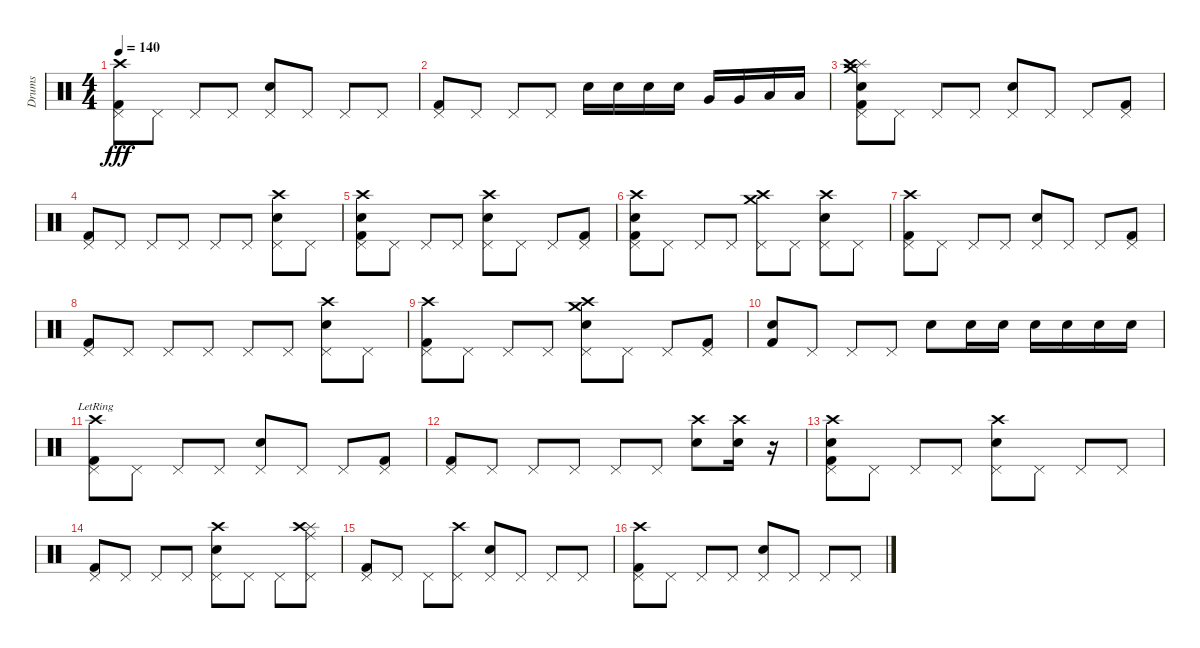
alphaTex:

\track ("Drums" "Drums") {instrument percussion}
\staff {score}
\articulation defaults
\ts (4 4)
\tempo 140
\clef neutral
\ks c
("Crash high (hit)" "Pedal Hi-Hat (hit)" "Kick (hit) 2").8{dy fff} "Pedal Hi-Hat (hit)".8 "Pedal Hi-Hat (hit)".8 "Pedal Hi-Hat (hit)".8 ("Pedal Hi-Hat (hit)" "Snare (hit) 2").8 "Pedal Hi-Hat (hit)".8 "Pedal Hi-Hat (hit)".8 "Pedal Hi-Hat (hit)".8 |
("Pedal Hi-Hat (hit)" "Kick (hit) 2").8 "Pedal Hi-Hat (hit)".8 "Pedal Hi-Hat (hit)".8 "Pedal Hi-Hat (hit)".8 "Snare (hit) 2".16 "Snare (hit) 2".16 "Snare (hit) 2".16 "Snare (hit) 2".16 "Very Low Tom (hit)".16 "Very Low Tom (hit)".16 "Low Floor Tom (hit)".16 "Low Floor Tom (hit)".16 |
("Crash medium (hit)" "Splash (hit)" "Pedal Hi-Hat (hit)" "Crash high (hit)" "Snare (hit) 2" "Kick (hit) 2").8 "Pedal Hi-Hat (hit)".8 "Pedal Hi-Hat (hit)".8 "Pedal Hi-Hat (hit)".8 ("Pedal Hi-Hat (hit)" "Snare (hit) 2").8 "Pedal Hi-Hat (hit)".8 "Pedal Hi-Hat (hit)".8 ("Pedal Hi-Hat (hit)" "Kick (hit) 2").8 |
("Pedal Hi-Hat (hit)" "Kick (hit) 2").8 "Pedal Hi-Hat (hit)".8 "Pedal Hi-Hat (hit)".8 "Pedal Hi-Hat (hit)".8 "Pedal Hi-Hat (hit)".8 "Pedal Hi-Hat (hit)".8 ("Crash high (hit)" "Pedal Hi-Hat (hit)" "Snare (hit) 2").8 "Pedal Hi-Hat (hit)".8 |
("Crash high (hit)" "Pedal Hi-Hat (hit)" "Snare (hit) 2" "Kick (hit) 2").8 "Pedal Hi-Hat (hit)".8 "Pedal Hi-Hat (hit)".8 "Pedal Hi-Hat (hit)".8 ("Crash high (hit)" "Pedal Hi-Hat (hit)" "Snare (hit) 2").8 "Pedal Hi-Hat (hit)".8 "Pedal Hi-Hat (hit)".8 ("Pedal Hi-Hat (hit)" "Kick (hit) 2").8 |
("Crash high (hit)" "Pedal Hi-Hat (hit)" "Snare (hit) 2" "Kick (hit) 2").8 "Pedal Hi-Hat (hit)".8 "Pedal Hi-Hat (hit)".8 "Pedal Hi-Hat (hit)".8 ("Crash medium (hit)" "Crash high (hit)" "Pedal Hi-Hat (hit)").8 "Pedal Hi-Hat (hit)".8 ("Crash high (hit)" "Pedal Hi-Hat (hit)" "Snare (hit) 2").8 "Pedal Hi-Hat (hit)".8 |
("Crash high (hit)" "Pedal Hi-Hat (hit)" "Kick (hit) 2").8 "Pedal Hi-Hat (hit)".8 "Pedal Hi-Hat (hit)".8 "Pedal Hi-Hat (hit)".8 ("Pedal Hi-Hat (hit)" "Snare (hit) 2").8 "Pedal Hi-Hat (hit)".8 "Pedal Hi-Hat (hit)".8 ("Pedal Hi-Hat (hit)" "Kick (hit) 2").8 |
("Pedal Hi-Hat (hit)" "Kick (hit) 2").8 "Pedal Hi-Hat (hit)".8 "Pedal Hi-Hat (hit)".8 "Pedal Hi-Hat (hit)".8 "Pedal Hi-Hat (hit)".8 "Pedal Hi-Hat (hit)".8 ("Crash high (hit)" "Pedal Hi-Hat (hit)" "Snare (hit) 2").8 "Pedal Hi-Hat (hit)".8 |
("Crash high (hit)" "Pedal Hi-Hat (hit)" "Kick (hit) 2").8 "Pedal Hi-Hat (hit)".8 "Pedal Hi-Hat (hit)".8 "Pedal Hi-Hat (hit)".8 ("Crash medium (hit)" "Crash high (hit)" "Pedal Hi-Hat (hit)" "Snare (hit) 2").8 "Pedal Hi-Hat (hit)".8 "Pedal Hi-Hat (hit)".8 ("Pedal Hi-Hat (hit)" "Kick (hit) 2").8 |
("Snare (hit) 2" "Kick (hit) 2").8 "Pedal Hi-Hat (hit)".8 "Pedal Hi-Hat (hit)".8 "Pedal Hi-Hat (hit)".8 "Snare (hit) 2".8 "Snare (hit) 2".16 "Snare (hit) 2".16 "Snare (hit) 2".16 "Snare (hit) 2".16 "Snare (hit) 2".16 "Snare (hit) 2".16 |
("Crash high (hit)"{lr} "Pedal Hi-Hat (hit)" "Kick (hit) 2").8 "Pedal Hi-Hat (hit)".8 "Pedal Hi-Hat (hit)".8 "Pedal Hi-Hat (hit)".8 ("Pedal Hi-Hat (hit)" "Snare (hit) 2").8 "Pedal Hi-Hat (hit)".8 "Pedal Hi-Hat (hit)".8 ("Pedal Hi-Hat (hit)" "Kick (hit) 2").8 |
("Pedal Hi-Hat (hit)" "Kick (hit) 2").8 "Pedal Hi-Hat (hit)".8 "Pedal Hi-Hat (hit)".8 "Pedal Hi-Hat (hit)".8 "Pedal Hi-Hat (hit)".8 "Pedal Hi-Hat (hit)".8 ("Crash high (hit)" "Snare (hit) 2").8 ("Crash high (hit)" "Snare (hit) 2").16 r.16 |
("Kick (hit) 2" "Crash high (hit)" "Pedal Hi-Hat (hit)" "Snare (hit) 2").8 "Pedal Hi-Hat (hit)".8 "Pedal Hi-Hat (hit)".8 "Pedal Hi-Hat (hit)".8 ("Crash high (hit)" "Pedal Hi-Hat (hit)" "Snare (hit) 2").8 "Pedal Hi-Hat (hit)".8 "Pedal Hi-Hat (hit)".8 "Pedal Hi-Hat (hit)".8 |
("Pedal Hi-Hat (hit)" "Kick (hit) 2").8 "Pedal Hi-Hat (hit)".8 "Pedal Hi-Hat (hit)".8 "Pedal Hi-Hat (hit)".8 ("Crash high (hit)" "Pedal Hi-Hat (hit)" "Snare (hit) 2").8 "Pedal Hi-Hat (hit)".8 "Pedal Hi-Hat (hit)".8 ("Splash (hit)" "Crash high (hit)" "Ride (middle)" "Pedal Hi-Hat (hit)").8 |
("Pedal Hi-Hat (hit)" "Kick (hit) 2").8 "Pedal Hi-Hat (hit)".8 "Pedal Hi-Hat (hit)".8 ("Crash high (hit)" "Pedal Hi-Hat (hit)").8 ("Pedal Hi-Hat (hit)" "Snare (hit) 2").8 "Pedal Hi-Hat (hit)".8 "Pedal Hi-Hat (hit)".8 "Pedal Hi-Hat (hit)".8 |
("Crash high (hit)" "Pedal Hi-Hat (hit)" "Kick (hit) 2").8 "Pedal Hi-Hat (hit)".8 "Pedal Hi-Hat (hit)".8 "Pedal Hi-Hat (hit)".8 ("Pedal Hi-Hat (hit)" "Snare (hit) 2").8 "Pedal Hi-Hat (hit)".8 "Pedal Hi-Hat (hit)".8 "Pedal Hi-Hat (hit)".8
